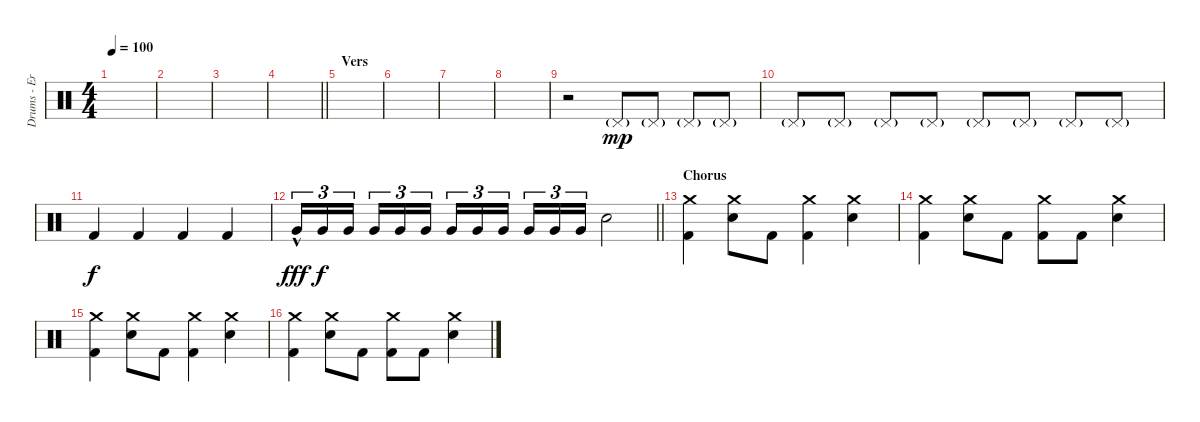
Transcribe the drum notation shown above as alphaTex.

\track ("Drums - Eric Young" "Drums - Er") {instrument percussion}
\staff {score}
\articulation defaults
\ts (4 4)
\tempo 100
\clef neutral
\ks c
|
|
|
\barLineRight lightlight
|
\section ("" "Vers")
|
|
|
|
r.2 "Pedal Hi-Hat (hit)"{g}.8{dy mp} "Pedal Hi-Hat (hit)"{g}.8 "Pedal Hi-Hat (hit)"{g}.8 "Pedal Hi-Hat (hit)"{g}.8 |
"Pedal Hi-Hat (hit)"{g}.8 "Pedal Hi-Hat (hit)"{g}.8 "Pedal Hi-Hat (hit)"{g}.8 "Pedal Hi-Hat (hit)"{g}.8 "Pedal Hi-Hat (hit)"{g}.8 "Pedal Hi-Hat (hit)"{g}.8 "Pedal Hi-Hat (hit)"{g}.8 "Pedal Hi-Hat (hit)"{g}.8 |
"Kick (hit) 2".4{dy f} "Kick (hit) 2".4 "Kick (hit) 2".4 "Kick (hit) 2".4 |
\barLineRight lightlight "Very Low Tom (hit)"{hac}.16{tu (3 2) dy fff} "Very Low Tom (hit)".16{tu (3 2) dy f} "Very Low Tom (hit)".16{tu (3 2) beam splitsecondary} "Very Low Tom (hit)".16{tu (3 2)} "Very Low Tom (hit)".16{tu (3 2)} "Very Low Tom (hit)".16{tu (3 2)} "Very Low Tom (hit)".16{tu (3 2)} "Very Low Tom (hit)".16{tu (3 2)} "Very Low Tom (hit)".16{tu (3 2) beam splitsecondary} "Very Low Tom (hit)".16{tu (3 2)} "Very Low Tom (hit)".16{tu (3 2)} "Very Low Tom (hit)".16{tu (3 2)} "Electric Snare (hit)".2
|
\section ("" "Chorus")
("Crash medium (hit)" "Kick (hit) 2").4 ("Crash medium (hit)" "Electric Snare (hit)").8 "Kick (hit) 2".8 ("Crash medium (hit)" "Kick (hit) 2").4 ("Crash medium (hit)" "Electric Snare (hit)").4 |
("Crash medium (hit)" "Kick (hit) 2").4 ("Crash medium (hit)" "Electric Snare (hit)").8 "Kick (hit) 2".8 ("Crash medium (hit)" "Kick (hit) 2").8 "Kick (hit) 2".8 ("Crash medium (hit)" "Electric Snare (hit)").4 |
("Crash medium (hit)" "Kick (hit) 2").4 ("Crash medium (hit)" "Electric Snare (hit)").8 "Kick (hit) 2".8 ("Crash medium (hit)" "Kick (hit) 2").4 ("Crash medium (hit)" "Electric Snare (hit)").4 |
("Crash medium (hit)" "Kick (hit) 2").4 ("Crash medium (hit)" "Electric Snare (hit)").8 "Kick (hit) 2".8 ("Crash medium (hit)" "Kick (hit) 2").8 "Kick (hit) 2".8 ("Crash medium (hit)" "Electric Snare (hit)").4
